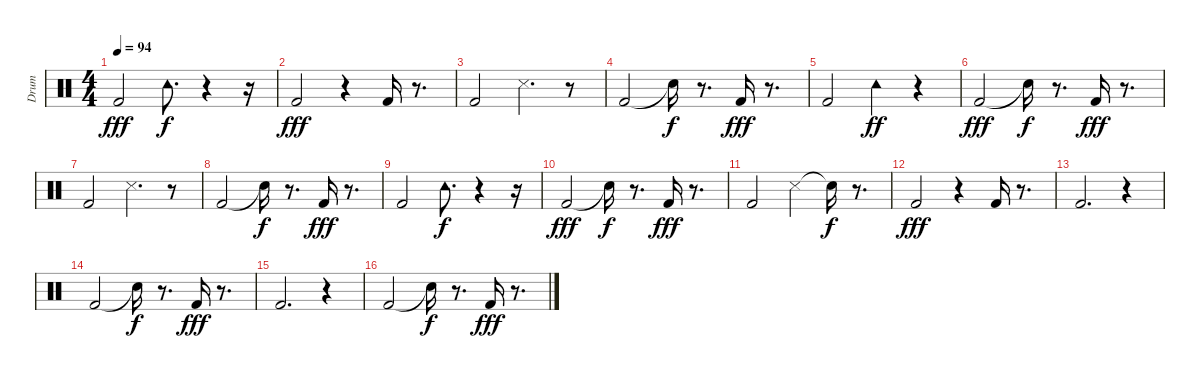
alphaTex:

\track ("Drum                    " "Drum      ") {instrument percussion}
\staff {score}
\articulation defaults
\ts (4 4)
\tempo 94
\clef neutral
\ks c "Kick (hit) 2".2{dy fff} "Tambourine (hit)".8{d dy f}
r.4 r.16 |
"Kick (hit) 2".2{dy fff} r.4 "Kick (hit) 2".16 r.8{d} |
"Kick (hit) 2".2 "Snare (side stick) 3".4{d} r.8 |
"Kick (hit) 2".2 "Snare (hit)"{t}.16{dy f} r.8{d} "Kick (hit) 2".16{dy fff} r.8{d} |
"Kick (hit) 2".2 "Tambourine (hit)".4{dy ff} r.4 |
"Kick (hit) 2".2{dy fff} "Snare (hit)"{t}.16{dy f} r.8{d} "Kick (hit) 2".16{dy fff} r.8{d} |
"Kick (hit) 2".2 "Snare (side stick) 3".4{d} r.8 |
"Kick (hit) 2".2 "Snare (hit)"{t}.16{dy f} r.8{d} "Kick (hit) 2".16{dy fff} r.8{d} |
"Kick (hit) 2".2 "Tambourine (hit)".8{d dy f} r.4 r.16 |
"Kick (hit) 2".2{dy fff} "Snare (hit)"{t}.16{dy f} r.8{d} "Kick (hit) 2".16{dy fff} r.8{d} |
"Kick (hit) 2".2 "Snare (side stick) 3".4 "Snare (hit)"{t}.16{dy f} r.8{d} |
"Kick (hit) 2".2{dy fff} r.4 "Kick (hit) 2".16 r.8{d} |
"Kick (hit) 2".2{d} r.4 |
"Kick (hit) 2".2 "Snare (hit)"{t}.16{dy f} r.8{d} "Kick (hit) 2".16{dy fff} r.8{d} |
"Kick (hit) 2".2{d} r.4 |
"Kick (hit) 2".2 "Snare (hit)"{t}.16{dy f} r.8{d} "Kick (hit) 2".16{dy fff} r.8{d}
